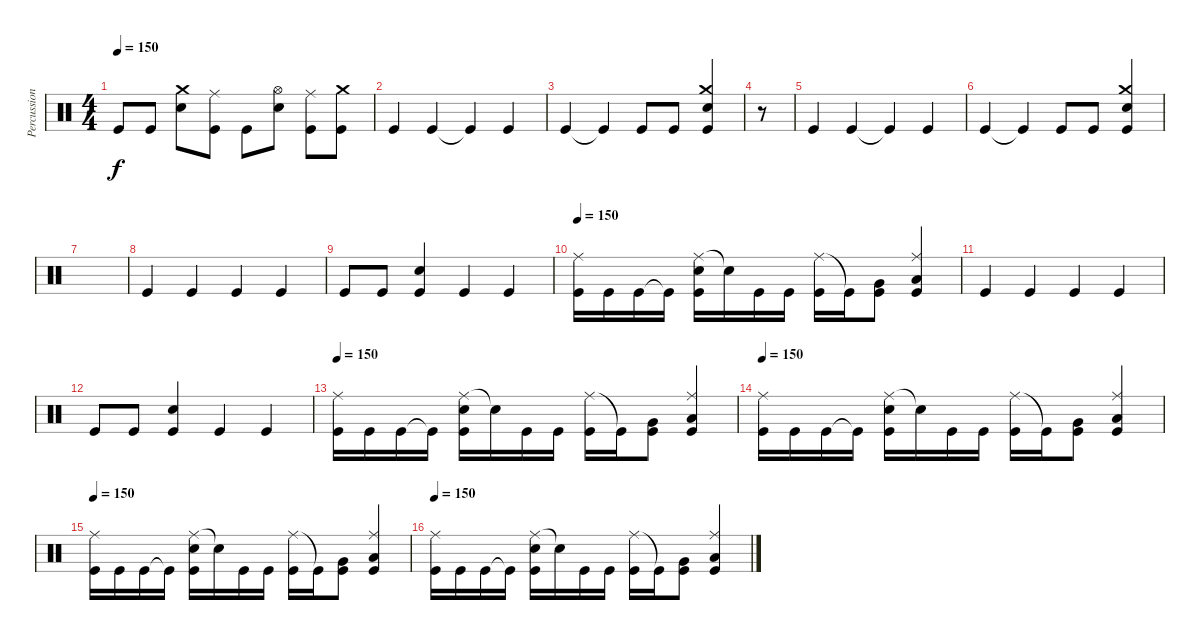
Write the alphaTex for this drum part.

\track ("Percussion" "Percussion") {instrument percussion}
\staff {score}
\articulation defaults
\ts (4 4)
\tempo 150
\clef neutral
\ks c "Kick (hit)".8{dy f} "Kick (hit)".8
("Crash medium (hit)" "Electric Snare (hit)").8 ("Ride (middle)" "Kick (hit)").8 "Kick (hit)".8 ("Hi-Hat (open)" "Electric Snare (hit)").8 ("Ride (middle)" "Kick (hit)").8 ("Crash medium (hit)" "Kick (hit)").8 |
"Kick (hit)".4 "Kick (hit)".4 "Kick (hit)"{t}.4 "Kick (hit)".4 |
"Kick (hit)".4 "Kick (hit)"{t}.4 "Kick (hit)".8 "Kick (hit)".8 ("Crash medium (hit)" "Electric Snare (hit)" "Kick (hit)").4 |
r.8 |
"Kick (hit)".4 "Kick (hit)".4 "Kick (hit)"{t}.4 "Kick (hit)".4 |
"Kick (hit)".4 "Kick (hit)"{t}.4 "Kick (hit)".8 "Kick (hit)".8 ("Crash medium (hit)" "Electric Snare (hit)" "Kick (hit)").4 |
|
"Kick (hit)".4 "Kick (hit)".4 "Kick (hit)".4 "Kick (hit)".4 |
"Kick (hit)".8 "Kick (hit)".8 ("Electric Snare (hit)" "Kick (hit)").4 "Kick (hit)".4 "Kick (hit)".4 |
\tempo 150
("Ride (middle)" "Kick (hit)").16 "Kick (hit)".16 "Kick (hit)".16 "Kick (hit)"{t}.16 ("Ride (middle)" "Electric Snare (hit)" "Kick (hit)").16 "Snare (hit)"{t}.16 "Kick (hit)".16 "Kick (hit)".16 ("Ride (middle)" "Kick (hit)").16 "Kick (hit)"{t}.16 ("Very Low Tom (hit)" "Kick (hit)").8 ("Ride (middle)" "Low Floor Tom (hit)" "Kick (hit)").4 |
"Kick (hit)".4 "Kick (hit)".4 "Kick (hit)".4 "Kick (hit)".4 |
"Kick (hit)".8 "Kick (hit)".8 ("Electric Snare (hit)" "Kick (hit)").4 "Kick (hit)".4 "Kick (hit)".4 |
\tempo 150
("Ride (middle)" "Kick (hit)").16 "Kick (hit)".16 "Kick (hit)".16 "Kick (hit)"{t}.16 ("Ride (middle)" "Electric Snare (hit)" "Kick (hit)").16 "Snare (hit)"{t}.16 "Kick (hit)".16 "Kick (hit)".16 ("Ride (middle)" "Kick (hit)").16 "Kick (hit)"{t}.16 ("Very Low Tom (hit)" "Kick (hit)").8 ("Ride (middle)" "Low Floor Tom (hit)" "Kick (hit)").4 |
\tempo 150
("Ride (middle)" "Kick (hit)").16 "Kick (hit)".16 "Kick (hit)".16 "Kick (hit)"{t}.16 ("Ride (middle)" "Electric Snare (hit)" "Kick (hit)").16 "Snare (hit)"{t}.16 "Kick (hit)".16 "Kick (hit)".16 ("Ride (middle)" "Kick (hit)").16 "Kick (hit)"{t}.16 ("Very Low Tom (hit)" "Kick (hit)").8 ("Ride (middle)" "Low Floor Tom (hit)" "Kick (hit)").4 |
\tempo 150
("Ride (middle)" "Kick (hit)").16 "Kick (hit)".16 "Kick (hit)".16 "Kick (hit)"{t}.16 ("Ride (middle)" "Electric Snare (hit)" "Kick (hit)").16 "Snare (hit)"{t}.16 "Kick (hit)".16 "Kick (hit)".16 ("Ride (middle)" "Kick (hit)").16 "Kick (hit)"{t}.16 ("Very Low Tom (hit)" "Kick (hit)").8 ("Ride (middle)" "Low Floor Tom (hit)" "Kick (hit)").4 |
\tempo 150
("Ride (middle)" "Kick (hit)").16 "Kick (hit)".16 "Kick (hit)".16 "Kick (hit)"{t}.16 ("Ride (middle)" "Electric Snare (hit)" "Kick (hit)").16 "Snare (hit)"{t}.16 "Kick (hit)".16 "Kick (hit)".16 ("Ride (middle)" "Kick (hit)").16 "Kick (hit)"{t}.16 ("Very Low Tom (hit)" "Kick (hit)").8 ("Ride (middle)" "Low Floor Tom (hit)" "Kick (hit)").4
